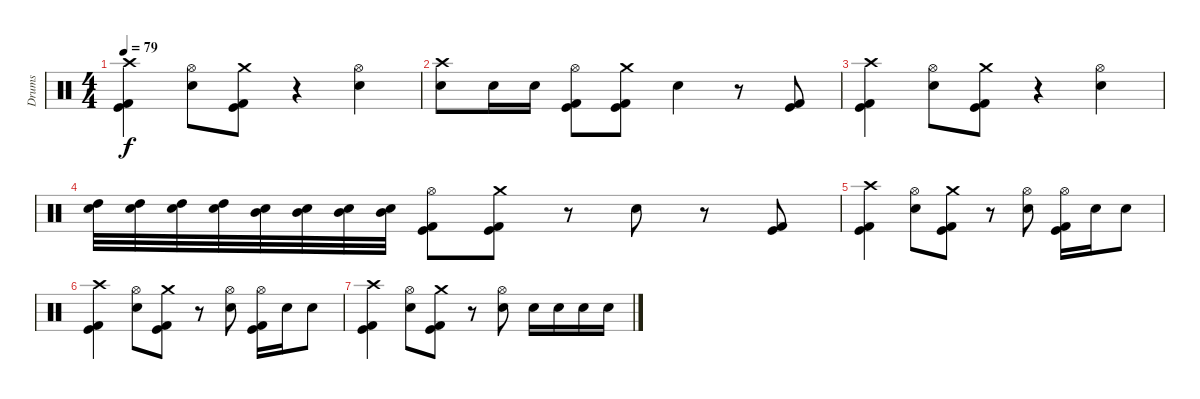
\track ("Drums" "Drums") {instrument percussion}
\staff {score}
\articulation defaults
\ts (4 4)
\tempo 79
\clef neutral
\ks c
("Crash high (hit)" "Kick (hit) 2" "Kick (hit)").4{dy f} ("Hi-Hat (open)" "Snare (hit) 2").8 ("Crash medium (hit)" "Kick (hit) 2" "Kick (hit)").8 r.4 ("Hi-Hat (open)" "Snare (hit) 2").4 |
("Crash high (hit)" "Snare (hit) 2").8 "Snare (hit) 2".16 "Snare (hit) 2".16 ("Hi-Hat (open)" "Kick (hit) 2" "Kick (hit)").8 ("Crash medium (hit)" "Kick (hit) 2" "Kick (hit)").8 "Snare (hit) 2".4 r.8 ("Kick (hit) 2" "Kick (hit)").8 |
("Crash high (hit)" "Kick (hit) 2" "Kick (hit)").4 ("Hi-Hat (open)" "Snare (hit) 2").8 ("Crash medium (hit)" "Kick (hit) 2" "Kick (hit)").8 r.4 ("Hi-Hat (open)" "Snare (hit) 2").4 |
("Snare (hit) 2" "High Tom (hit)").32 ("Snare (hit) 2" "High Tom (hit)").32 ("Snare (hit) 2" "High Tom (hit)").32 ("Snare (hit) 2" "High Tom (hit)").32 ("Snare (hit) 2" "Mid Tom (hit)").32 ("Snare (hit) 2" "Mid Tom (hit)").32 ("Snare (hit) 2" "Mid Tom (hit)").32 ("Snare (hit) 2" "Mid Tom (hit)").32 ("Hi-Hat (open)" "Kick (hit) 2" "Kick (hit)").8 ("Crash medium (hit)" "Kick (hit) 2" "Kick (hit)").8 r.8 "Snare (hit) 2".8 r.8 ("Kick (hit) 2" "Kick (hit)").8 |
("Crash high (hit)" "Kick (hit) 2" "Kick (hit)").4 ("Hi-Hat (open)" "Snare (hit) 2").8 ("Crash medium (hit)" "Kick (hit) 2" "Kick (hit)").8 r.8 ("Hi-Hat (open)" "Snare (hit) 2").8 ("Hi-Hat (open)" "Kick (hit) 2" "Kick (hit)").16 "Snare (hit) 2".16 "Snare (hit) 2".8 |
("Crash high (hit)" "Kick (hit) 2" "Kick (hit)").4 ("Hi-Hat (open)" "Snare (hit) 2").8 ("Crash medium (hit)" "Kick (hit) 2" "Kick (hit)").8 r.8 ("Hi-Hat (open)" "Snare (hit) 2").8 ("Hi-Hat (open)" "Kick (hit) 2" "Kick (hit)").16 "Snare (hit) 2".16 "Snare (hit) 2".8 |
("Crash high (hit)" "Kick (hit) 2" "Kick (hit)").4 ("Hi-Hat (open)" "Snare (hit) 2").8 ("Crash medium (hit)" "Kick (hit) 2" "Kick (hit)").8 r.8 ("Hi-Hat (open)" "Snare (hit) 2").8 "Snare (hit) 2".16 "Snare (hit) 2".16 "Snare (hit) 2".16 "Snare (hit) 2".16
